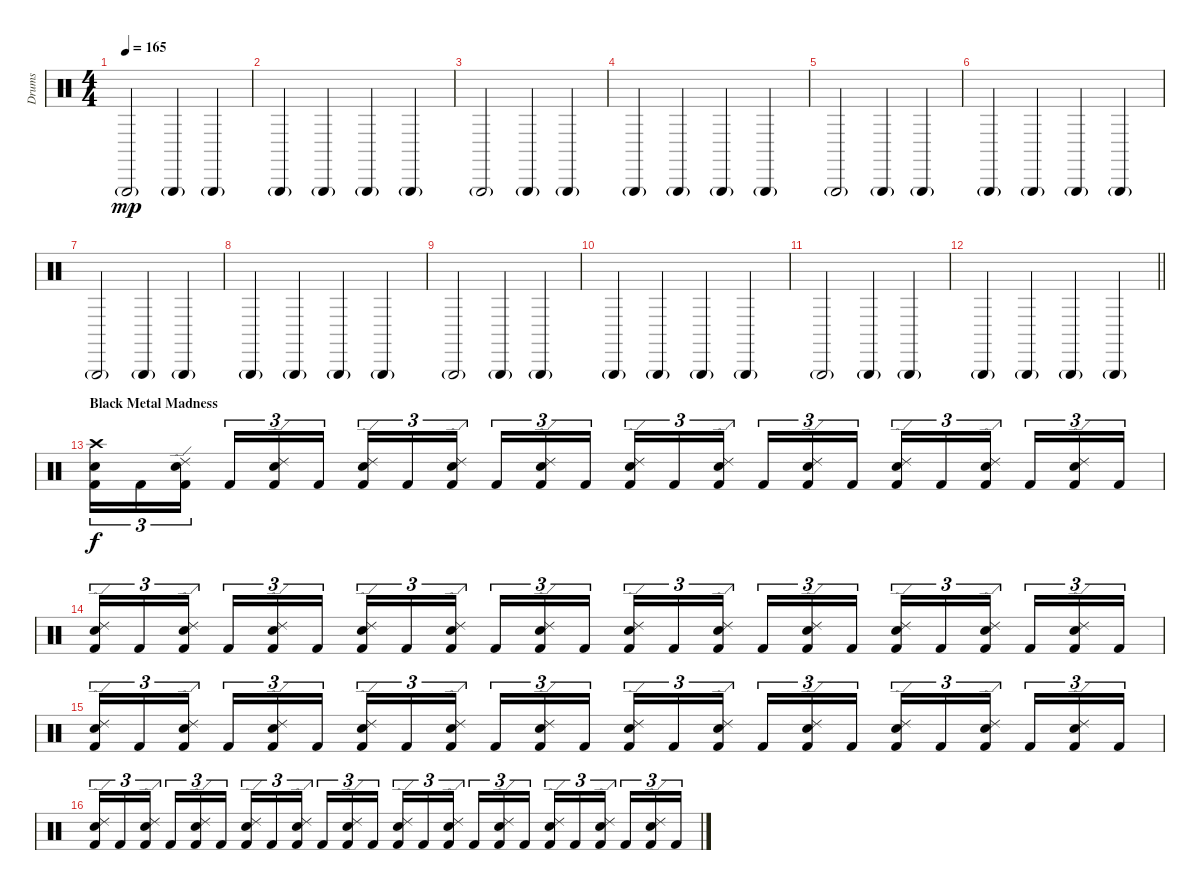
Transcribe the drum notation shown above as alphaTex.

\track ("Drums" "Drums") {instrument percussion}
\staff {score}
\articulation defaults
\ts (4 4)
\tempo 165
\clef neutral
\ks c "Triangle (hit)"{g}.2{dy mp} "Triangle (hit)"{g}.4 "Triangle (hit)"{g}.4
|
"Triangle (hit)"{g}.4 "Triangle (hit)"{g}.4 "Triangle (hit)"{g}.4 "Triangle (hit)"{g}.4 |
"Triangle (hit)"{g}.2 "Triangle (hit)"{g}.4 "Triangle (hit)"{g}.4 |
"Triangle (hit)"{g}.4 "Triangle (hit)"{g}.4 "Triangle (hit)"{g}.4 "Triangle (hit)"{g}.4 |
"Triangle (hit)"{g}.2 "Triangle (hit)"{g}.4 "Triangle (hit)"{g}.4 |
"Triangle (hit)"{g}.4 "Triangle (hit)"{g}.4 "Triangle (hit)"{g}.4 "Triangle (hit)"{g}.4 |
"Triangle (hit)"{g}.2 "Triangle (hit)"{g}.4 "Triangle (hit)"{g}.4 |
"Triangle (hit)"{g}.4 "Triangle (hit)"{g}.4 "Triangle (hit)"{g}.4 "Triangle (hit)"{g}.4 |
"Triangle (hit)"{g}.2 "Triangle (hit)"{g}.4 "Triangle (hit)"{g}.4 |
"Triangle (hit)"{g}.4 "Triangle (hit)"{g}.4 "Triangle (hit)"{g}.4 "Triangle (hit)"{g}.4 |
"Triangle (hit)"{g}.2 "Triangle (hit)"{g}.4 "Triangle (hit)"{g}.4 |
\barLineRight lightlight "Triangle (hit)"{g}.4 "Triangle (hit)"{g}.4 "Triangle (hit)"{g}.4 "Triangle (hit)"{g}.4
|
\section ("" "Black Metal Madness")
("Crash high (hit)" "Snare (hit) 2" "Kick (hit) 2").16{tu (3 2) dy f} "Kick (hit) 2".16{tu (3 2)} ("Ride (edge) 2" "Snare (hit) 2" "Kick (hit) 2").16{tu (3 2) beam splitsecondary} "Kick (hit) 2".16{tu (3 2)} ("Ride (edge) 2" "Snare (hit) 2" "Kick (hit) 2").16{tu (3 2)} "Kick (hit) 2".16{tu (3 2)} ("Ride (edge) 2" "Snare (hit) 2" "Kick (hit) 2").16{tu (3 2)} "Kick (hit) 2".16{tu (3 2)} ("Ride (edge) 2" "Snare (hit) 2" "Kick (hit) 2").16{tu (3 2) beam splitsecondary} "Kick (hit) 2".16{tu (3 2)} ("Ride (edge) 2" "Snare (hit) 2" "Kick (hit) 2").16{tu (3 2)} "Kick (hit) 2".16{tu (3 2)} ("Ride (edge) 2" "Snare (hit) 2" "Kick (hit) 2").16{tu (3 2)} "Kick (hit) 2".16{tu (3 2)} ("Ride (edge) 2" "Snare (hit) 2" "Kick (hit) 2").16{tu (3 2) beam splitsecondary} "Kick (hit) 2".16{tu (3 2)} ("Ride (edge) 2" "Snare (hit) 2" "Kick (hit) 2").16{tu (3 2)} "Kick (hit) 2".16{tu (3 2)} ("Ride (edge) 2" "Snare (hit) 2" "Kick (hit) 2").16{tu (3 2)} "Kick (hit) 2".16{tu (3 2)} ("Ride (edge) 2" "Snare (hit) 2" "Kick (hit) 2").16{tu (3 2) beam splitsecondary} "Kick (hit) 2".16{tu (3 2)} ("Ride (edge) 2" "Snare (hit) 2" "Kick (hit) 2").16{tu (3 2)} "Kick (hit) 2".16{tu (3 2)} |
("Ride (edge) 2" "Snare (hit) 2" "Kick (hit) 2").16{tu (3 2)} "Kick (hit) 2".16{tu (3 2)} ("Ride (edge) 2" "Snare (hit) 2" "Kick (hit) 2").16{tu (3 2) beam splitsecondary} "Kick (hit) 2".16{tu (3 2)} ("Ride (edge) 2" "Snare (hit) 2" "Kick (hit) 2").16{tu (3 2)} "Kick (hit) 2".16{tu (3 2)} ("Ride (edge) 2" "Snare (hit) 2" "Kick (hit) 2").16{tu (3 2)} "Kick (hit) 2".16{tu (3 2)} ("Ride (edge) 2" "Snare (hit) 2" "Kick (hit) 2").16{tu (3 2) beam splitsecondary} "Kick (hit) 2".16{tu (3 2)} ("Ride (edge) 2" "Snare (hit) 2" "Kick (hit) 2").16{tu (3 2)} "Kick (hit) 2".16{tu (3 2)} ("Ride (edge) 2" "Snare (hit) 2" "Kick (hit) 2").16{tu (3 2)} "Kick (hit) 2".16{tu (3 2)} ("Ride (edge) 2" "Snare (hit) 2" "Kick (hit) 2").16{tu (3 2) beam splitsecondary} "Kick (hit) 2".16{tu (3 2)} ("Ride (edge) 2" "Snare (hit) 2" "Kick (hit) 2").16{tu (3 2)} "Kick (hit) 2".16{tu (3 2)} ("Ride (edge) 2" "Snare (hit) 2" "Kick (hit) 2").16{tu (3 2)} "Kick (hit) 2".16{tu (3 2)} ("Ride (edge) 2" "Snare (hit) 2" "Kick (hit) 2").16{tu (3 2) beam splitsecondary} "Kick (hit) 2".16{tu (3 2)} ("Ride (edge) 2" "Snare (hit) 2" "Kick (hit) 2").16{tu (3 2)} "Kick (hit) 2".16{tu (3 2)} |
("Ride (edge) 2" "Snare (hit) 2" "Kick (hit) 2").16{tu (3 2)} "Kick (hit) 2".16{tu (3 2)} ("Ride (edge) 2" "Snare (hit) 2" "Kick (hit) 2").16{tu (3 2) beam splitsecondary} "Kick (hit) 2".16{tu (3 2)} ("Ride (edge) 2" "Snare (hit) 2" "Kick (hit) 2").16{tu (3 2)} "Kick (hit) 2".16{tu (3 2)} ("Ride (edge) 2" "Snare (hit) 2" "Kick (hit) 2").16{tu (3 2)} "Kick (hit) 2".16{tu (3 2)} ("Ride (edge) 2" "Snare (hit) 2" "Kick (hit) 2").16{tu (3 2) beam splitsecondary} "Kick (hit) 2".16{tu (3 2)} ("Ride (edge) 2" "Snare (hit) 2" "Kick (hit) 2").16{tu (3 2)} "Kick (hit) 2".16{tu (3 2)} ("Ride (edge) 2" "Snare (hit) 2" "Kick (hit) 2").16{tu (3 2)} "Kick (hit) 2".16{tu (3 2)} ("Ride (edge) 2" "Snare (hit) 2" "Kick (hit) 2").16{tu (3 2) beam splitsecondary} "Kick (hit) 2".16{tu (3 2)} ("Ride (edge) 2" "Snare (hit) 2" "Kick (hit) 2").16{tu (3 2)} "Kick (hit) 2".16{tu (3 2)} ("Ride (edge) 2" "Snare (hit) 2" "Kick (hit) 2").16{tu (3 2)} "Kick (hit) 2".16{tu (3 2)} ("Ride (edge) 2" "Snare (hit) 2" "Kick (hit) 2").16{tu (3 2) beam splitsecondary} "Kick (hit) 2".16{tu (3 2)} ("Ride (edge) 2" "Snare (hit) 2" "Kick (hit) 2").16{tu (3 2)} "Kick (hit) 2".16{tu (3 2)} |
("Ride (edge) 2" "Snare (hit) 2" "Kick (hit) 2").16{tu (3 2)} "Kick (hit) 2".16{tu (3 2)} ("Ride (edge) 2" "Snare (hit) 2" "Kick (hit) 2").16{tu (3 2) beam splitsecondary} "Kick (hit) 2".16{tu (3 2)} ("Ride (edge) 2" "Snare (hit) 2" "Kick (hit) 2").16{tu (3 2)} "Kick (hit) 2".16{tu (3 2)} ("Ride (edge) 2" "Snare (hit) 2" "Kick (hit) 2").16{tu (3 2)} "Kick (hit) 2".16{tu (3 2)} ("Ride (edge) 2" "Snare (hit) 2" "Kick (hit) 2").16{tu (3 2) beam splitsecondary} "Kick (hit) 2".16{tu (3 2)} ("Ride (edge) 2" "Snare (hit) 2" "Kick (hit) 2").16{tu (3 2)} "Kick (hit) 2".16{tu (3 2)} ("Ride (edge) 2" "Snare (hit) 2" "Kick (hit) 2").16{tu (3 2)} "Kick (hit) 2".16{tu (3 2)} ("Ride (edge) 2" "Snare (hit) 2" "Kick (hit) 2").16{tu (3 2) beam splitsecondary} "Kick (hit) 2".16{tu (3 2)} ("Ride (edge) 2" "Snare (hit) 2" "Kick (hit) 2").16{tu (3 2)} "Kick (hit) 2".16{tu (3 2)} ("Ride (edge) 2" "Snare (hit) 2" "Kick (hit) 2").16{tu (3 2)} "Kick (hit) 2".16{tu (3 2)} ("Ride (edge) 2" "Snare (hit) 2" "Kick (hit) 2").16{tu (3 2) beam splitsecondary} "Kick (hit) 2".16{tu (3 2)} ("Ride (edge) 2" "Snare (hit) 2" "Kick (hit) 2").16{tu (3 2)} "Kick (hit) 2".16{tu (3 2)}
